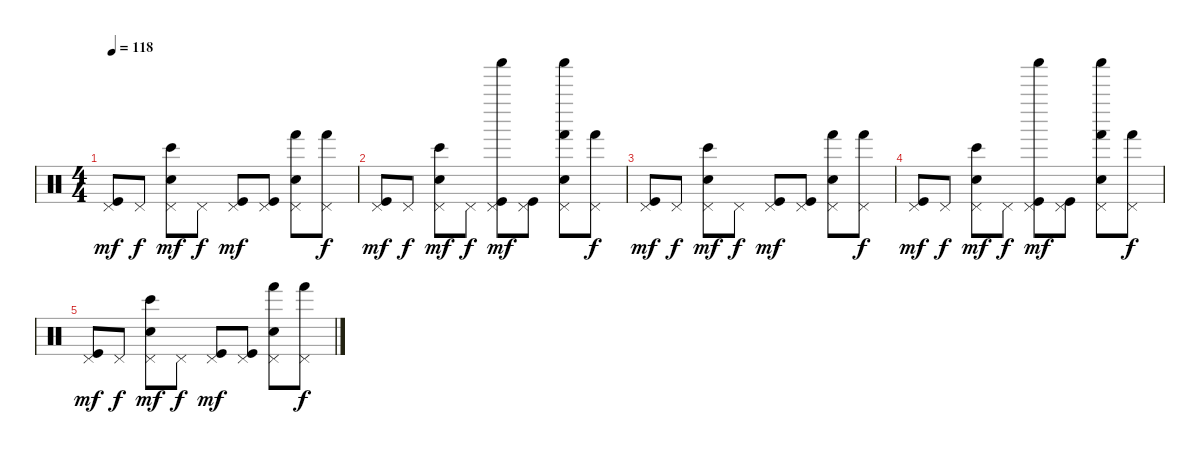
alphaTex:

\track "" {instrument percussion}
\staff {score}
\articulation defaults
\ts (4 4)
\tempo 118
\clef neutral
\ks c
("Pedal Hi-Hat (hit)" "Kick (hit)").8{dy mf} "Pedal Hi-Hat (hit)".8{dy f} ("Pedal Hi-Hat (hit)" "Snare (hit) 2" "Bongo High (hit)").8{dy mf} "Pedal Hi-Hat (hit)".8{dy f} ("Pedal Hi-Hat (hit)" "Kick (hit)").8{dy mf} ("Pedal Hi-Hat (hit)" "Kick (hit)").8 ("Pedal Hi-Hat (hit)" "Snare (hit) 2" "Hand (hit)").8 ("Pedal Hi-Hat (hit)" "Hand (hit)").8{dy f} |
("Pedal Hi-Hat (hit)" "Kick (hit)").8{dy mf volume 5} "Pedal Hi-Hat (hit)".8{dy f} ("Pedal Hi-Hat (hit)" "Snare (hit) 2" "Bongo High (hit)").8{dy mf} "Pedal Hi-Hat (hit)".8{dy f} ("Pedal Hi-Hat (hit)" "Kick (hit)" "Shaker (hit)").8{dy mf} ("Pedal Hi-Hat (hit)" "Kick (hit)").8 ("Pedal Hi-Hat (hit)" "Snare (hit) 2" "Hand (hit)" "Shaker (hit)").8 ("Pedal Hi-Hat (hit)" "Hand (hit)").8{dy f} |
("Pedal Hi-Hat (hit)" "Kick (hit)").8{dy mf} "Pedal Hi-Hat (hit)".8{dy f} ("Pedal Hi-Hat (hit)" "Snare (hit) 2" "Bongo High (hit)").8{dy mf} "Pedal Hi-Hat (hit)".8{dy f} ("Pedal Hi-Hat (hit)" "Kick (hit)").8{dy mf} ("Pedal Hi-Hat (hit)" "Kick (hit)").8 ("Pedal Hi-Hat (hit)" "Snare (hit) 2" "Hand (hit)").8 ("Pedal Hi-Hat (hit)" "Hand (hit)").8{dy f} |
("Pedal Hi-Hat (hit)" "Kick (hit)").8{dy mf volume 3} "Pedal Hi-Hat (hit)".8{dy f} ("Pedal Hi-Hat (hit)" "Snare (hit) 2" "Bongo High (hit)").8{dy mf} "Pedal Hi-Hat (hit)".8{dy f} ("Pedal Hi-Hat (hit)" "Kick (hit)" "Shaker (hit)").8{dy mf} ("Pedal Hi-Hat (hit)" "Kick (hit)").8 ("Pedal Hi-Hat (hit)" "Snare (hit) 2" "Hand (hit)" "Shaker (hit)").8 ("Pedal Hi-Hat (hit)" "Hand (hit)").8{dy f} |
("Pedal Hi-Hat (hit)" "Kick (hit)").8{dy mf} "Pedal Hi-Hat (hit)".8{dy f} ("Pedal Hi-Hat (hit)" "Snare (hit) 2" "Bongo High (hit)").8{dy mf} "Pedal Hi-Hat (hit)".8{dy f} ("Pedal Hi-Hat (hit)" "Kick (hit)").8{dy mf} ("Pedal Hi-Hat (hit)" "Kick (hit)").8 ("Pedal Hi-Hat (hit)" "Snare (hit) 2" "Hand (hit)").8 ("Pedal Hi-Hat (hit)" "Hand (hit)").8{dy f}
